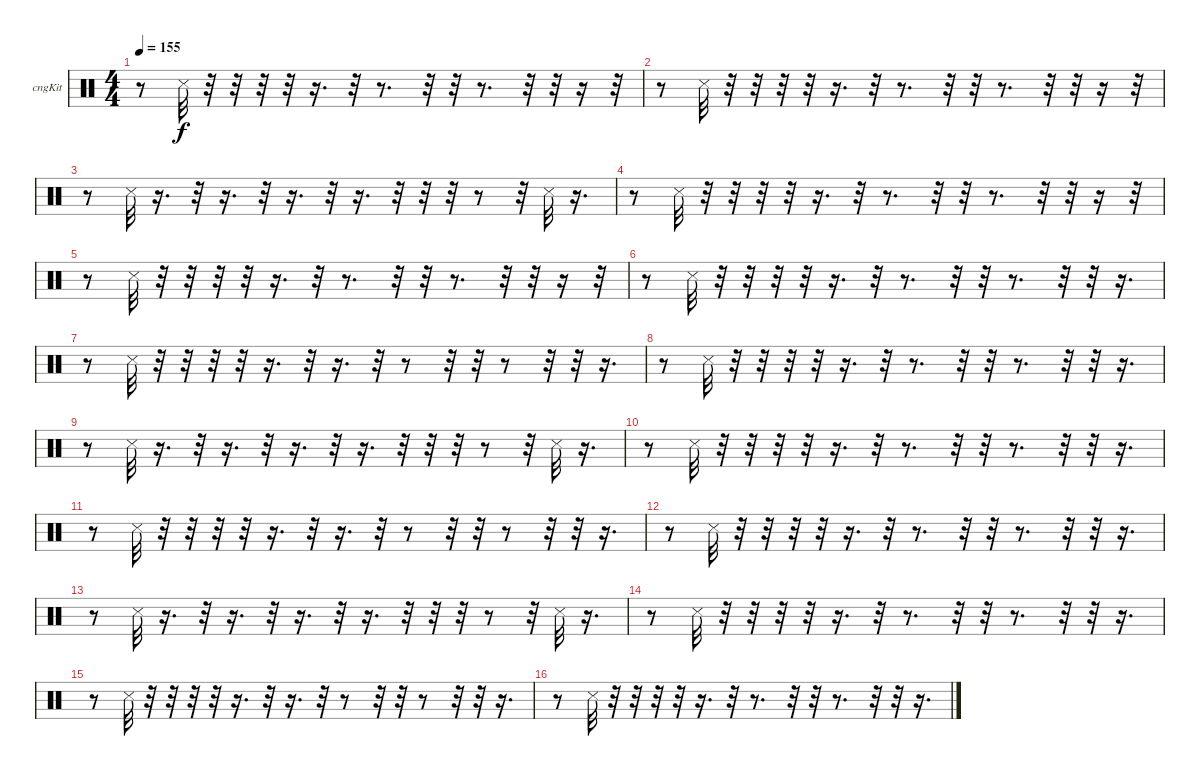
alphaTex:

\bracketExtendMode groupsimilarinstruments
\firstSystemTrackNameOrientation horizontal
\otherSystemsTrackNameOrientation horizontal
\track ("Е. Кулаков" "cngKit") {instrument percussion}
\staff {score}
\articulation defaults
\ts (4 4)
\tempo 155
\clef neutral
\ks c
r.8{dy f} "Snare (side stick) 3".32 r.32 r.32 r.32 r.32 r.16{d} r.32 r.8{d} r.32 r.32 r.8{d} r.32 r.32 r.16 r.32 |
r.8 "Snare (side stick) 3".32 r.32 r.32 r.32 r.32 r.16{d} r.32 r.8{d} r.32 r.32 r.8{d} r.32 r.32 r.16 r.32 |
r.8 "Snare (side stick) 3".32 r.16{d} r.32 r.16{d} r.32 r.16{d} r.32 r.16{d} r.32 r.32 r.32 r.8 r.32 "Snare (side stick) 3".32 r.16{d} |
r.8 "Snare (side stick) 3".32 r.32 r.32 r.32 r.32 r.16{d} r.32 r.8{d} r.32 r.32 r.8{d} r.32 r.32 r.16 r.32 |
r.8 "Snare (side stick) 3".32 r.32 r.32 r.32 r.32 r.16{d} r.32 r.8{d} r.32 r.32 r.8{d} r.32 r.32 r.16 r.32 |
r.8 "Snare (side stick) 3".32 r.32 r.32 r.32 r.32 r.16{d} r.32 r.8{d} r.32 r.32 r.8{d} r.32 r.32 r.16{d} |
r.8 "Snare (side stick) 3".32 r.32 r.32 r.32 r.32 r.16{d} r.32 r.16{d} r.32 r.8 r.32 r.32 r.8 r.32 r.32 r.16{d} |
r.8 "Snare (side stick) 3".32 r.32 r.32 r.32 r.32 r.16{d} r.32 r.8{d} r.32 r.32 r.8{d} r.32 r.32 r.16{d} |
r.8 "Snare (side stick) 3".32 r.16{d} r.32 r.16{d} r.32 r.16{d} r.32 r.16{d} r.32 r.32 r.32 r.8 r.32 "Snare (side stick) 3".32 r.16{d} |
r.8 "Snare (side stick) 3".32 r.32 r.32 r.32 r.32 r.16{d} r.32 r.8{d} r.32 r.32 r.8{d} r.32 r.32 r.16{d} |
r.8 "Snare (side stick) 3".32 r.32 r.32 r.32 r.32 r.16{d} r.32 r.16{d} r.32 r.8 r.32 r.32 r.8 r.32 r.32 r.16{d} |
r.8 "Snare (side stick) 3".32 r.32 r.32 r.32 r.32 r.16{d} r.32 r.8{d} r.32 r.32 r.8{d} r.32 r.32 r.16{d} |
r.8 "Snare (side stick) 3".32 r.16{d} r.32 r.16{d} r.32 r.16{d} r.32 r.16{d} r.32 r.32 r.32 r.8 r.32 "Snare (side stick) 3".32 r.16{d} |
r.8 "Snare (side stick) 3".32 r.32 r.32 r.32 r.32 r.16{d} r.32 r.8{d} r.32 r.32 r.8{d} r.32 r.32 r.16{d} |
r.8 "Snare (side stick) 3".32 r.32 r.32 r.32 r.32 r.16{d} r.32 r.16{d} r.32 r.8 r.32 r.32 r.8 r.32 r.32 r.16{d} |
r.8 "Snare (side stick) 3".32 r.32 r.32 r.32 r.32 r.16{d} r.32 r.8{d} r.32 r.32 r.8{d} r.32 r.32 r.16{d}
